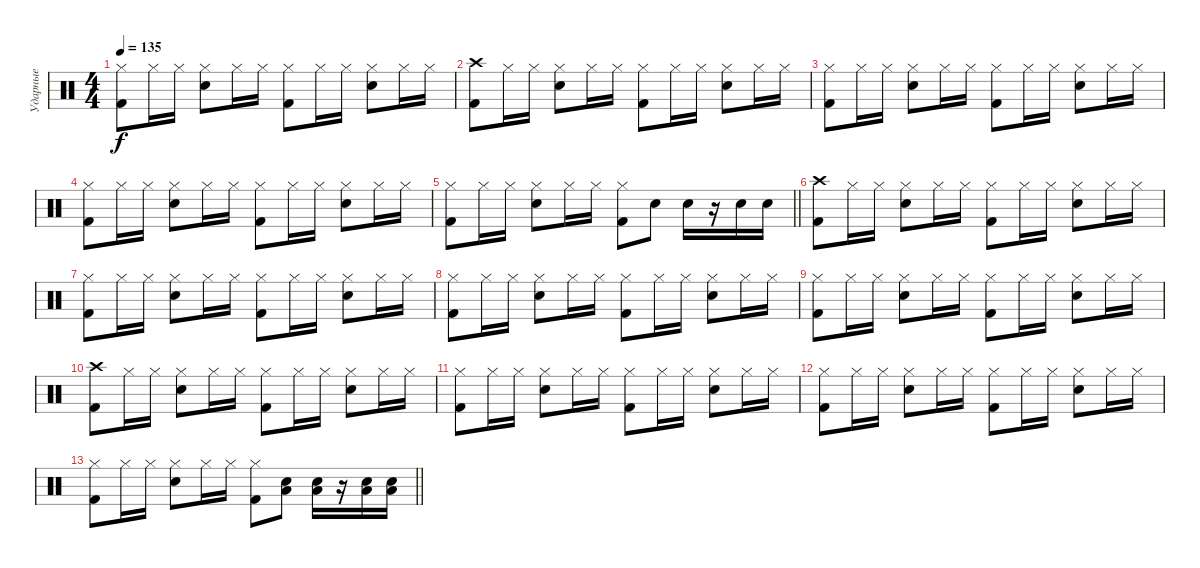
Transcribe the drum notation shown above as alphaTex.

\track ("Ударные" "Ударные") {instrument percussion}
\staff {score}
\articulation defaults
\ts (4 4)
\tempo 135
\clef neutral
\ks c
("Hi-Hat (closed)" "Kick (hit) 2").8{dy f} "Hi-Hat (closed)".16 "Hi-Hat (closed)".16 ("Hi-Hat (closed)" "Electric Snare (hit)").8 "Hi-Hat (closed)".16 "Hi-Hat (closed)".16 ("Hi-Hat (closed)" "Kick (hit) 2").8 "Hi-Hat (closed)".16 "Hi-Hat (closed)".16 ("Hi-Hat (closed)" "Electric Snare (hit)").8 "Hi-Hat (closed)".16 "Hi-Hat (closed)".16 |
("Crash high (hit)" "Kick (hit) 2").8 "Hi-Hat (closed)".16 "Hi-Hat (closed)".16 ("Hi-Hat (closed)" "Electric Snare (hit)").8 "Hi-Hat (closed)".16 "Hi-Hat (closed)".16 ("Hi-Hat (closed)" "Kick (hit) 2").8 "Hi-Hat (closed)".16 "Hi-Hat (closed)".16 ("Hi-Hat (closed)" "Electric Snare (hit)").8 "Hi-Hat (closed)".16 "Hi-Hat (closed)".16 |
("Hi-Hat (closed)" "Kick (hit) 2").8 "Hi-Hat (closed)".16 "Hi-Hat (closed)".16 ("Hi-Hat (closed)" "Electric Snare (hit)").8 "Hi-Hat (closed)".16 "Hi-Hat (closed)".16 ("Hi-Hat (closed)" "Kick (hit) 2").8 "Hi-Hat (closed)".16 "Hi-Hat (closed)".16 ("Hi-Hat (closed)" "Electric Snare (hit)").8 "Hi-Hat (closed)".16 "Hi-Hat (closed)".16 |
("Hi-Hat (closed)" "Kick (hit) 2").8 "Hi-Hat (closed)".16 "Hi-Hat (closed)".16 ("Hi-Hat (closed)" "Electric Snare (hit)").8 "Hi-Hat (closed)".16 "Hi-Hat (closed)".16 ("Hi-Hat (closed)" "Kick (hit) 2").8 "Hi-Hat (closed)".16 "Hi-Hat (closed)".16 ("Hi-Hat (closed)" "Electric Snare (hit)").8 "Hi-Hat (closed)".16 "Hi-Hat (closed)".16 |
\barLineRight lightlight
("Hi-Hat (closed)" "Kick (hit) 2").8 "Hi-Hat (closed)".16 "Hi-Hat (closed)".16 ("Hi-Hat (closed)" "Electric Snare (hit)").8 "Hi-Hat (closed)".16 "Hi-Hat (closed)".16 ("Hi-Hat (closed)" "Kick (hit) 2").8 "Electric Snare (hit)".8 "Electric Snare (hit)".16 r.16 "Electric Snare (hit)".16 "Electric Snare (hit)".16 |
("Crash high (hit)" "Kick (hit) 2").8 "Hi-Hat (closed)".16 "Hi-Hat (closed)".16 ("Hi-Hat (closed)" "Electric Snare (hit)").8 "Hi-Hat (closed)".16 "Hi-Hat (closed)".16 ("Hi-Hat (closed)" "Kick (hit) 2").8 "Hi-Hat (closed)".16 "Hi-Hat (closed)".16 ("Hi-Hat (closed)" "Electric Snare (hit)").8 "Hi-Hat (closed)".16 "Hi-Hat (closed)".16 |
("Hi-Hat (closed)" "Kick (hit) 2").8 "Hi-Hat (closed)".16 "Hi-Hat (closed)".16 ("Hi-Hat (closed)" "Electric Snare (hit)").8 "Hi-Hat (closed)".16 "Hi-Hat (closed)".16 ("Hi-Hat (closed)" "Kick (hit) 2").8 "Hi-Hat (closed)".16 "Hi-Hat (closed)".16 ("Hi-Hat (closed)" "Electric Snare (hit)").8 "Hi-Hat (closed)".16 "Hi-Hat (closed)".16 |
("Hi-Hat (closed)" "Kick (hit) 2").8 "Hi-Hat (closed)".16 "Hi-Hat (closed)".16 ("Hi-Hat (closed)" "Electric Snare (hit)").8 "Hi-Hat (closed)".16 "Hi-Hat (closed)".16 ("Hi-Hat (closed)" "Kick (hit) 2").8 "Hi-Hat (closed)".16 "Hi-Hat (closed)".16 ("Hi-Hat (closed)" "Electric Snare (hit)").8 "Hi-Hat (closed)".16 "Hi-Hat (closed)".16 |
("Hi-Hat (closed)" "Kick (hit) 2").8 "Hi-Hat (closed)".16 "Hi-Hat (closed)".16 ("Hi-Hat (closed)" "Electric Snare (hit)").8 "Hi-Hat (closed)".16 "Hi-Hat (closed)".16 ("Hi-Hat (closed)" "Kick (hit) 2").8 "Hi-Hat (closed)".16 "Hi-Hat (closed)".16 ("Hi-Hat (closed)" "Electric Snare (hit)").8 "Hi-Hat (closed)".16 "Hi-Hat (closed)".16 |
("Crash high (hit)" "Kick (hit) 2").8 "Hi-Hat (closed)".16 "Hi-Hat (closed)".16 ("Hi-Hat (closed)" "Electric Snare (hit)").8 "Hi-Hat (closed)".16 "Hi-Hat (closed)".16 ("Hi-Hat (closed)" "Kick (hit) 2").8 "Hi-Hat (closed)".16 "Hi-Hat (closed)".16 ("Hi-Hat (closed)" "Electric Snare (hit)").8 "Hi-Hat (closed)".16 "Hi-Hat (closed)".16 |
("Hi-Hat (closed)" "Kick (hit) 2").8 "Hi-Hat (closed)".16 "Hi-Hat (closed)".16 ("Hi-Hat (closed)" "Electric Snare (hit)").8 "Hi-Hat (closed)".16 "Hi-Hat (closed)".16 ("Hi-Hat (closed)" "Kick (hit) 2").8 "Hi-Hat (closed)".16 "Hi-Hat (closed)".16 ("Hi-Hat (closed)" "Electric Snare (hit)").8 "Hi-Hat (closed)".16 "Hi-Hat (closed)".16 |
("Hi-Hat (closed)" "Kick (hit) 2").8 "Hi-Hat (closed)".16 "Hi-Hat (closed)".16 ("Hi-Hat (closed)" "Electric Snare (hit)").8 "Hi-Hat (closed)".16 "Hi-Hat (closed)".16 ("Hi-Hat (closed)" "Kick (hit) 2").8 "Hi-Hat (closed)".16 "Hi-Hat (closed)".16 ("Hi-Hat (closed)" "Electric Snare (hit)").8 "Hi-Hat (closed)".16 "Hi-Hat (closed)".16 |
\barLineRight lightlight
("Hi-Hat (closed)" "Kick (hit) 2").8 "Hi-Hat (closed)".16 "Hi-Hat (closed)".16 ("Hi-Hat (closed)" "Electric Snare (hit)").8 "Hi-Hat (closed)".16 "Hi-Hat (closed)".16 ("Hi-Hat (closed)" "Kick (hit) 2").8 ("Electric Snare (hit)" "Low Tom (hit)").8 ("Electric Snare (hit)" "Low Tom (hit)").16 r.16 ("Electric Snare (hit)" "Low Tom (hit)").16 ("Electric Snare (hit)" "Low Tom (hit)").16
